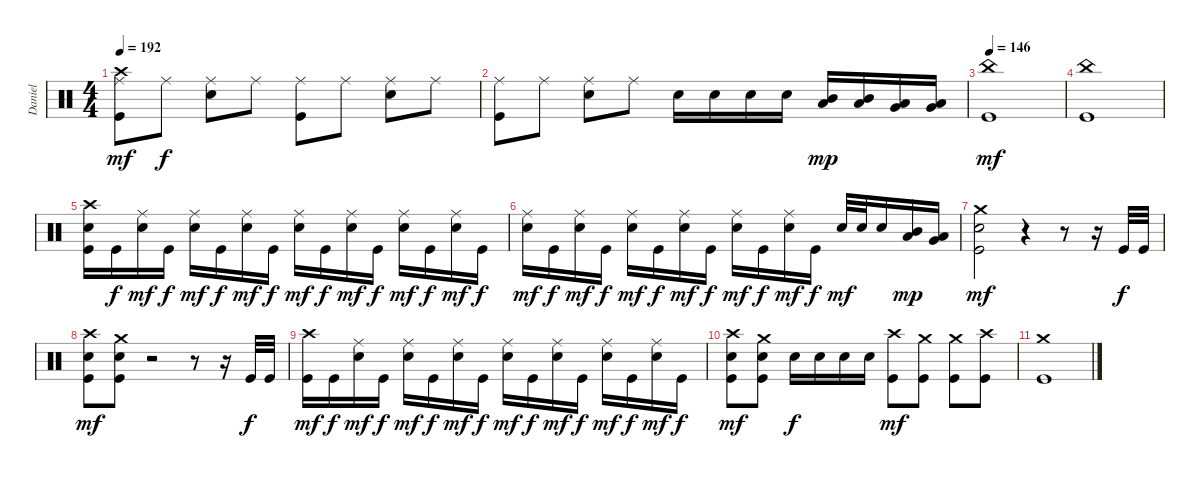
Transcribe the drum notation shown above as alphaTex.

\track ("Daniel" "Daniel") {instrument percussion}
\staff {score}
\articulation defaults
\ts (4 4)
\tempo 192
\clef neutral
\ks c
("Kick (hit)" "Ride (middle)" "Crash high (hit)").8{dy mf} "Ride (middle)".8{dy f} ("Electric Snare (hit)" "Ride (middle)").8 "Ride (middle)".8 ("Kick (hit)" "Ride (middle)").8 "Ride (middle)".8 ("Electric Snare (hit)" "Ride (middle)").8 "Ride (middle)".8 |
("Kick (hit)" "Ride (middle)").8 "Ride (middle)".8 ("Electric Snare (hit)" "Ride (middle)").8 "Ride (middle)".8 "Electric Snare (hit)".16 "Electric Snare (hit)".16 "Electric Snare (hit)".16 "Electric Snare (hit)".16 ("Low Tom (hit)" "Mid Tom (hit)").16{dy mp} ("Low Tom (hit)" "Mid Tom (hit)").16 ("Very Low Tom (hit)" "Low Tom (hit)").16 ("Very Low Tom (hit)" "Low Tom (hit)").16 |
\tempo 146
("Kick (hit)" "China (hit)").1{dy mf} |
("Kick (hit)" "China (hit)").1 |
("Kick (hit)" "Electric Snare (hit)" "Crash high (hit)").16 "Kick (hit)".16{dy f} ("Electric Snare (hit)" "Ride (middle)").16{dy mf} "Kick (hit)".16{dy f} ("Electric Snare (hit)" "Ride (middle)").16{dy mf} "Kick (hit)".16{dy f} ("Electric Snare (hit)" "Ride (middle)").16{dy mf} "Kick (hit)".16{dy f} ("Electric Snare (hit)" "Ride (middle)").16{dy mf} "Kick (hit)".16{dy f} ("Electric Snare (hit)" "Ride (middle)").16{dy mf} "Kick (hit)".16{dy f} ("Electric Snare (hit)" "Ride (middle)").16{dy mf} "Kick (hit)".16{dy f} ("Electric Snare (hit)" "Ride (middle)").16{dy mf} "Kick (hit)".16{dy f} |
("Electric Snare (hit)" "Ride (middle)").16{dy mf} "Kick (hit)".16{dy f} ("Electric Snare (hit)" "Ride (middle)").16{dy mf} "Kick (hit)".16{dy f} ("Electric Snare (hit)" "Ride (middle)").16{dy mf} "Kick (hit)".16{dy f} ("Electric Snare (hit)" "Ride (middle)").16{dy mf} "Kick (hit)".16{dy f} ("Electric Snare (hit)" "Ride (middle)").16{dy mf} "Kick (hit)".16{dy f} ("Electric Snare (hit)" "Ride (middle)").16{dy mf} "Kick (hit)".16{dy f} "Electric Snare (hit)".32{dy mf} "Electric Snare (hit)".32 "Electric Snare (hit)".16 ("Low Tom (hit)" "Mid Tom (hit)").16{dy mp} ("Very Low Tom (hit)" "Low Tom (hit)").16 |
("Kick (hit)" "Electric Snare (hit)" "Crash medium (hit)").2{dy mf} r.4 r.8 r.16 "Kick (hit)".32{dy f} "Kick (hit)".32 |
("Kick (hit)" "Electric Snare (hit)" "Crash high (hit)").8{dy mf} ("Kick (hit)" "Electric Snare (hit)" "Crash medium (hit)").8 r.2 r.8 r.16 "Kick (hit)".32{dy f} "Kick (hit)".32 |
("Kick (hit)" "Crash high (hit)").16{dy mf} "Kick (hit)".16{dy f} ("Electric Snare (hit)" "Ride (middle)").16{dy mf} "Kick (hit)".16{dy f} ("Electric Snare (hit)" "Ride (middle)").16{dy mf} "Kick (hit)".16{dy f} ("Electric Snare (hit)" "Ride (middle)").16{dy mf} "Kick (hit)".16{dy f} ("Electric Snare (hit)" "Ride (middle)").16{dy mf} "Kick (hit)".16{dy f} ("Electric Snare (hit)" "Ride (middle)").16{dy mf} "Kick (hit)".16{dy f} ("Electric Snare (hit)" "Ride (middle)").16{dy mf} "Kick (hit)".16{dy f} ("Electric Snare (hit)" "Ride (middle)").16{dy mf} "Kick (hit)".16{dy f} |
("Kick (hit)" "Electric Snare (hit)" "Crash high (hit)").8{dy mf} ("Kick (hit)" "Electric Snare (hit)" "Crash medium (hit)").8 "Electric Snare (hit)".16{dy f} "Electric Snare (hit)".16 "Electric Snare (hit)".16 "Electric Snare (hit)".16 ("Kick (hit)" "Crash high (hit)").8{dy mf} ("Kick (hit)" "Crash medium (hit)").8 ("Kick (hit)" "Crash medium (hit)").8 ("Kick (hit)" "Crash high (hit)").8 |
("Kick (hit)" "Crash medium (hit)").1
